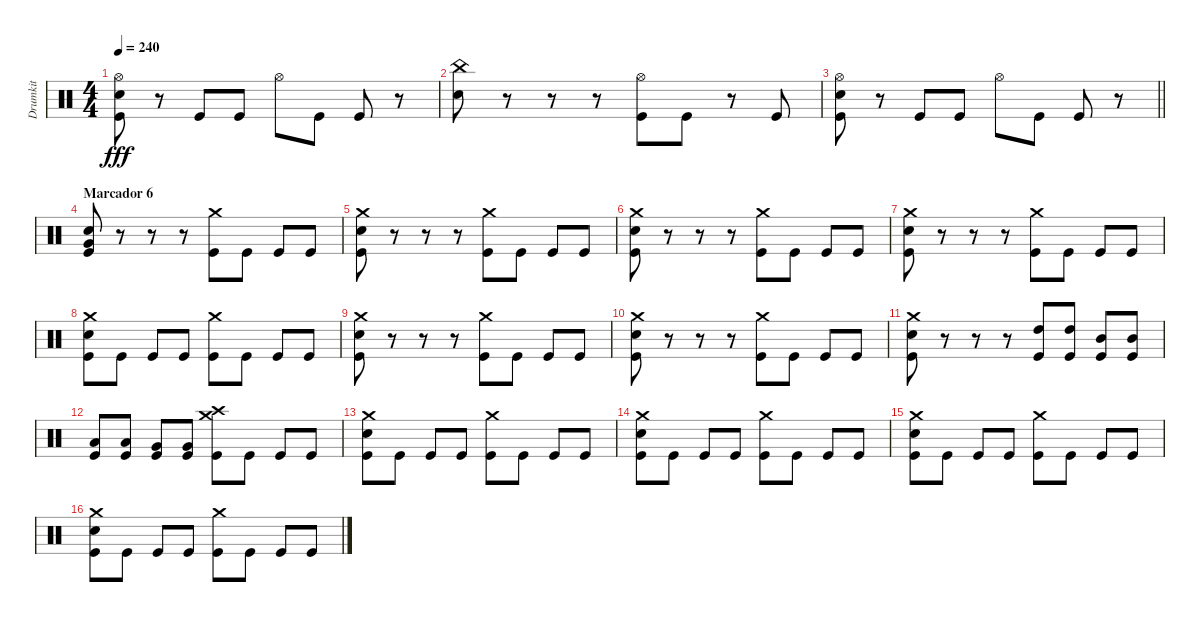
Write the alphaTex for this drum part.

\track ("Drumkit" "Drumkit") {instrument percussion}
\staff {score}
\articulation defaults
\ts (4 4)
\tempo 240
\clef neutral
\ks c
("Hi-Hat (open)" "Snare (hit) 2" "Kick (hit)").8{dy fff} r.8 "Kick (hit)".8 "Kick (hit)".8 "Hi-Hat (open)".8 "Kick (hit)".8 "Kick (hit)".8 r.8 |
("China (hit)" "Snare (hit) 2").8 r.8 r.8 r.8 ("Hi-Hat (open)" "Kick (hit)").8 "Kick (hit)".8 r.8 "Kick (hit)".8 |
\barLineRight lightlight
("Hi-Hat (open)" "Snare (hit) 2" "Kick (hit)").8 r.8 "Kick (hit)".8 "Kick (hit)".8 "Hi-Hat (open)".8 "Kick (hit)".8 "Kick (hit)".8 r.8 |
\section ("" "Marcador 6")
("Snare (hit) 2" "Very Low Tom (hit)" "Kick (hit)").8 r.8 r.8 r.8 ("Crash medium (hit)" "Kick (hit)").8 "Kick (hit)".8 "Kick (hit)".8 "Kick (hit)".8 |
("Crash medium (hit)" "Snare (hit) 2" "Kick (hit)").8 r.8 r.8 r.8 ("Crash medium (hit)" "Kick (hit)").8 "Kick (hit)".8 "Kick (hit)".8 "Kick (hit)".8 |
("Crash medium (hit)" "Snare (hit) 2" "Kick (hit)").8 r.8 r.8 r.8 ("Crash medium (hit)" "Kick (hit)").8 "Kick (hit)".8 "Kick (hit)".8 "Kick (hit)".8 |
("Crash medium (hit)" "Snare (hit) 2" "Kick (hit)").8 r.8 r.8 r.8 ("Crash medium (hit)" "Kick (hit)").8 "Kick (hit)".8 "Kick (hit)".8 "Kick (hit)".8 |
("Crash medium (hit)" "Snare (hit) 2" "Kick (hit)").8 "Kick (hit)".8 "Kick (hit)".8 "Kick (hit)".8 ("Crash medium (hit)" "Kick (hit)").8 "Kick (hit)".8 "Kick (hit)".8 "Kick (hit)".8 |
("Crash medium (hit)" "Snare (hit) 2" "Kick (hit)").8 r.8 r.8 r.8 ("Crash medium (hit)" "Kick (hit)").8 "Kick (hit)".8 "Kick (hit)".8 "Kick (hit)".8 |
("Crash medium (hit)" "Snare (hit) 2" "Kick (hit)").8 r.8 r.8 r.8 ("Crash medium (hit)" "Kick (hit)").8 "Kick (hit)".8 "Kick (hit)".8 "Kick (hit)".8 |
("Crash medium (hit)" "Snare (hit) 2" "Kick (hit)").8 r.8 r.8 r.8 ("High Tom (hit)" "Kick (hit)").8 ("High Tom (hit)" "Kick (hit)").8 ("Mid Tom (hit)" "Kick (hit)").8 ("Mid Tom (hit)" "Kick (hit)").8 |
("Low Tom (hit)" "Kick (hit)").8 ("Low Tom (hit)" "Kick (hit)").8 ("Very Low Tom (hit)" "Kick (hit)").8 ("Very Low Tom (hit)" "Kick (hit)").8 ("Crash medium (hit)" "Crash high (hit)" "Kick (hit)").8 "Kick (hit)".8 "Kick (hit)".8 "Kick (hit)".8 |
("Crash medium (hit)" "Snare (hit) 2" "Kick (hit)").8 "Kick (hit)".8 "Kick (hit)".8 "Kick (hit)".8 ("Crash medium (hit)" "Kick (hit)").8 "Kick (hit)".8 "Kick (hit)".8 "Kick (hit)".8 |
("Crash medium (hit)" "Snare (hit) 2" "Kick (hit)").8 "Kick (hit)".8 "Kick (hit)".8 "Kick (hit)".8 ("Crash medium (hit)" "Kick (hit)").8 "Kick (hit)".8 "Kick (hit)".8 "Kick (hit)".8 |
("Crash medium (hit)" "Snare (hit) 2" "Kick (hit)").8 "Kick (hit)".8 "Kick (hit)".8 "Kick (hit)".8 ("Crash medium (hit)" "Kick (hit)").8 "Kick (hit)".8 "Kick (hit)".8 "Kick (hit)".8 |
("Crash medium (hit)" "Snare (hit) 2" "Kick (hit)").8 "Kick (hit)".8 "Kick (hit)".8 "Kick (hit)".8 ("Crash medium (hit)" "Kick (hit)").8 "Kick (hit)".8 "Kick (hit)".8 "Kick (hit)".8
